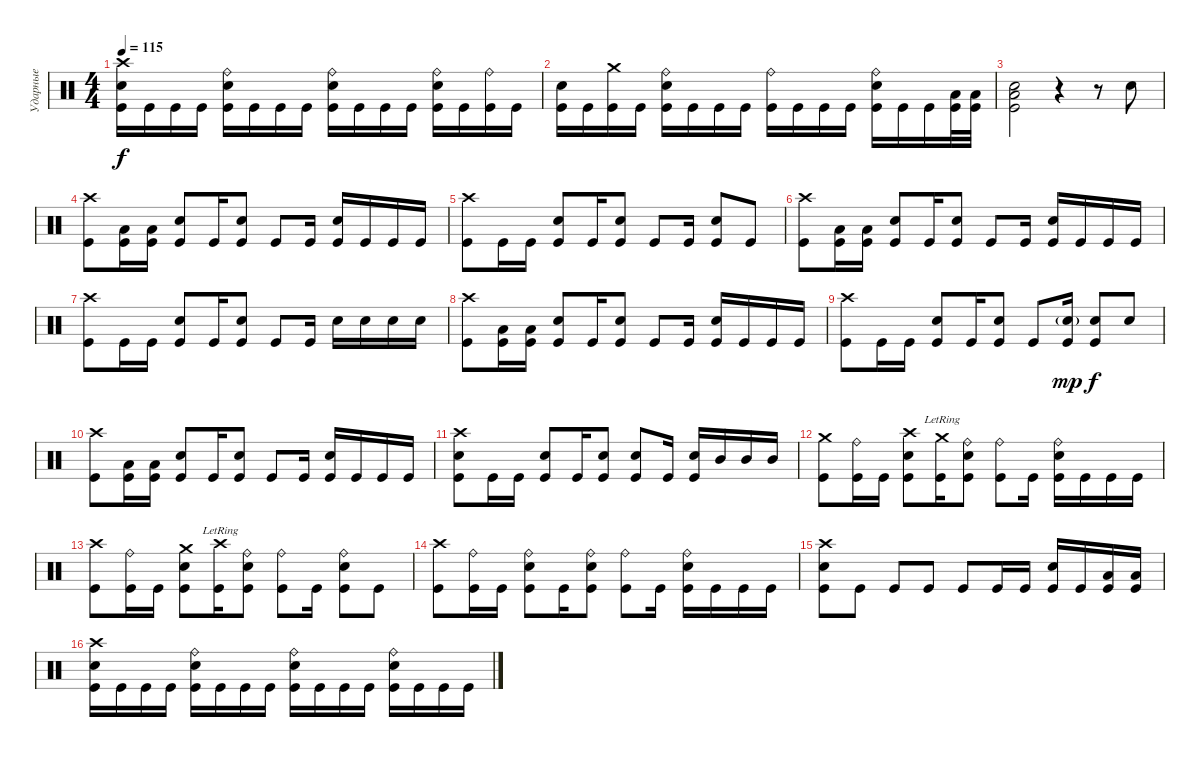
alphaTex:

\track ("Ударные" "Ударные") {instrument percussion}
\staff {score}
\articulation defaults
\ts (4 4)
\tempo 115
\clef neutral
\ks c
("Crash high (hit)" "Electric Snare (hit)" "Kick (hit)").16{dy f} "Kick (hit)".16 "Kick (hit)".16 "Kick (hit)".16 ("Ride (bell)" "Electric Snare (hit)" "Kick (hit)").16 "Kick (hit)".16 "Kick (hit)".16 "Kick (hit)".16 ("Ride (bell)" "Electric Snare (hit)" "Kick (hit)").16 "Kick (hit)".16 "Kick (hit)".16 "Kick (hit)".16 ("Ride (bell)" "Electric Snare (hit)" "Kick (hit)").16 "Kick (hit)".16 ("Ride (bell)" "Kick (hit)").16 "Kick (hit)".16 |
("Electric Snare (hit)" "Kick (hit)").16 "Kick (hit)".16 ("Crash medium (hit)" "Kick (hit)").16 "Kick (hit)".16 ("Ride (bell)" "Electric Snare (hit)" "Kick (hit)").16 "Kick (hit)".16 "Kick (hit)".16 "Kick (hit)".16 ("Ride (bell)" "Kick (hit)").16 "Kick (hit)".16 "Kick (hit)".16 "Kick (hit)".16 ("Ride (bell)" "Electric Snare (hit)" "Kick (hit)").16 "Kick (hit)".16 "Kick (hit)".16 ("Low Tom (hit)" "Kick (hit)").32 ("Low Tom (hit)" "Kick (hit)").32 |
("Low Tom (hit)" "Electric Snare (hit)" "Kick (hit)").2 r.4 r.8 "Electric Snare (hit)".8 |
("Crash high (hit)" "Kick (hit)").8 ("Low Tom (hit)" "Kick (hit)").16 ("Low Tom (hit)" "Kick (hit)").16 ("Electric Snare (hit)" "Kick (hit)").8 "Kick (hit)".16 ("Electric Snare (hit)" "Kick (hit)").8 "Kick (hit)".8 "Kick (hit)".16 ("Electric Snare (hit)" "Kick (hit)").16 "Kick (hit)".16 "Kick (hit)".16 "Kick (hit)".16 |
("Crash high (hit)" "Kick (hit)").8 "Kick (hit)".16 "Kick (hit)".16 ("Electric Snare (hit)" "Kick (hit)").8 "Kick (hit)".16 ("Electric Snare (hit)" "Kick (hit)").8 "Kick (hit)".8 "Kick (hit)".16 ("Electric Snare (hit)" "Kick (hit)").8 "Kick (hit)".8 |
("Crash high (hit)" "Kick (hit)").8 ("Low Tom (hit)" "Kick (hit)").16 ("Low Tom (hit)" "Kick (hit)").16 ("Electric Snare (hit)" "Kick (hit)").8 "Kick (hit)".16 ("Electric Snare (hit)" "Kick (hit)").8 "Kick (hit)".8 "Kick (hit)".16 ("Electric Snare (hit)" "Kick (hit)").16 "Kick (hit)".16 "Kick (hit)".16 "Kick (hit)".16 |
("Crash high (hit)" "Kick (hit)").8 "Kick (hit)".16 "Kick (hit)".16 ("Electric Snare (hit)" "Kick (hit)").8 "Kick (hit)".16 ("Electric Snare (hit)" "Kick (hit)").8 "Kick (hit)".8 "Kick (hit)".16 "Electric Snare (hit)".16 "Electric Snare (hit)".16 "Electric Snare (hit)".16 "Electric Snare (hit)".16 |
("Crash high (hit)" "Kick (hit)").8 ("Low Tom (hit)" "Kick (hit)").16 ("Low Tom (hit)" "Kick (hit)").16 ("Electric Snare (hit)" "Kick (hit)").8 "Kick (hit)".16 ("Electric Snare (hit)" "Kick (hit)").8 "Kick (hit)".8 "Kick (hit)".16 ("Electric Snare (hit)" "Kick (hit)").16 "Kick (hit)".16 "Kick (hit)".16 "Kick (hit)".16 |
("Crash high (hit)" "Kick (hit)").8 "Kick (hit)".16 "Kick (hit)".16 ("Electric Snare (hit)" "Kick (hit)").8 "Kick (hit)".16 ("Electric Snare (hit)" "Kick (hit)").8 "Kick (hit)".8 ("Electric Snare (hit)"{g} "Kick (hit)").16{dy mp} ("Electric Snare (hit)" "Kick (hit)").8{dy f} "Electric Snare (hit)".8 |
("Crash high (hit)" "Kick (hit)").8 ("Low Tom (hit)" "Kick (hit)").16 ("Low Tom (hit)" "Kick (hit)").16 ("Electric Snare (hit)" "Kick (hit)").8 "Kick (hit)".16 ("Electric Snare (hit)" "Kick (hit)").8 "Kick (hit)".8 "Kick (hit)".16 ("Electric Snare (hit)" "Kick (hit)").16 "Kick (hit)".16 "Kick (hit)".16 "Kick (hit)".16 |
("Crash high (hit)" "Electric Snare (hit)" "Kick (hit)").8 "Kick (hit)".16 "Kick (hit)".16 ("Electric Snare (hit)" "Kick (hit)").8 "Kick (hit)".16 ("Electric Snare (hit)" "Kick (hit)").8 ("Electric Snare (hit)" "Kick (hit)").8 "Kick (hit)".16 ("Electric Snare (hit)" "Kick (hit)").16 "Mid Tom (hit)".16 "Mid Tom (hit)".16 "Mid Tom (hit)".16 |
("Crash medium (hit)" "Kick (hit)").8 ("Ride (bell)" "Kick (hit)").16 "Kick (hit)".16 ("Crash high (hit)" "Electric Snare (hit)" "Kick (hit)").8 ("Crash medium (hit)"{lr} "Kick (hit)").16 ("Ride (bell)" "Electric Snare (hit)" "Kick (hit)").8 ("Ride (bell)" "Kick (hit)").8 "Kick (hit)".16 ("Ride (bell)" "Electric Snare (hit)" "Kick (hit)").16 "Kick (hit)".16 "Kick (hit)".16 "Kick (hit)".16 |
("Crash high (hit)" "Kick (hit)").8 ("Ride (bell)" "Kick (hit)").16 "Kick (hit)".16 ("Crash medium (hit)" "Electric Snare (hit)" "Kick (hit)").8 ("Crash high (hit)"{lr} "Kick (hit)").16 ("Ride (bell)" "Electric Snare (hit)" "Kick (hit)").8 ("Ride (bell)" "Kick (hit)").8 "Kick (hit)".16 ("Ride (bell)" "Electric Snare (hit)" "Kick (hit)").8 "Kick (hit)".8 |
("Crash high (hit)" "Kick (hit)").8 ("Ride (bell)" "Kick (hit)").16 "Kick (hit)".16 ("Ride (bell)" "Electric Snare (hit)" "Kick (hit)").8 "Kick (hit)".16 ("Ride (bell)" "Electric Snare (hit)" "Kick (hit)").8 ("Ride (bell)" "Kick (hit)").8 "Kick (hit)".16 ("Ride (bell)" "Electric Snare (hit)" "Kick (hit)").16 "Kick (hit)".16 "Kick (hit)".16 "Kick (hit)".16 |
("Crash high (hit)" "Electric Snare (hit)" "Kick (hit)").8 "Kick (hit)".8 "Kick (hit)".8 "Kick (hit)".8 "Kick (hit)".8 "Kick (hit)".16 "Kick (hit)".16 ("Electric Snare (hit)" "Kick (hit)").16 "Kick (hit)".16 ("Low Tom (hit)" "Kick (hit)").16 ("Low Tom (hit)" "Kick (hit)").16 |
("Crash high (hit)" "Electric Snare (hit)" "Kick (hit)").16 "Kick (hit)".16 "Kick (hit)".16 "Kick (hit)".16 ("Ride (bell)" "Electric Snare (hit)" "Kick (hit)").16 "Kick (hit)".16 "Kick (hit)".16 "Kick (hit)".16 ("Ride (bell)" "Electric Snare (hit)" "Kick (hit)").16 "Kick (hit)".16 "Kick (hit)".16 "Kick (hit)".16 ("Ride (bell)" "Electric Snare (hit)" "Kick (hit)").16 "Kick (hit)".16 "Kick (hit)".16 "Kick (hit)".16
